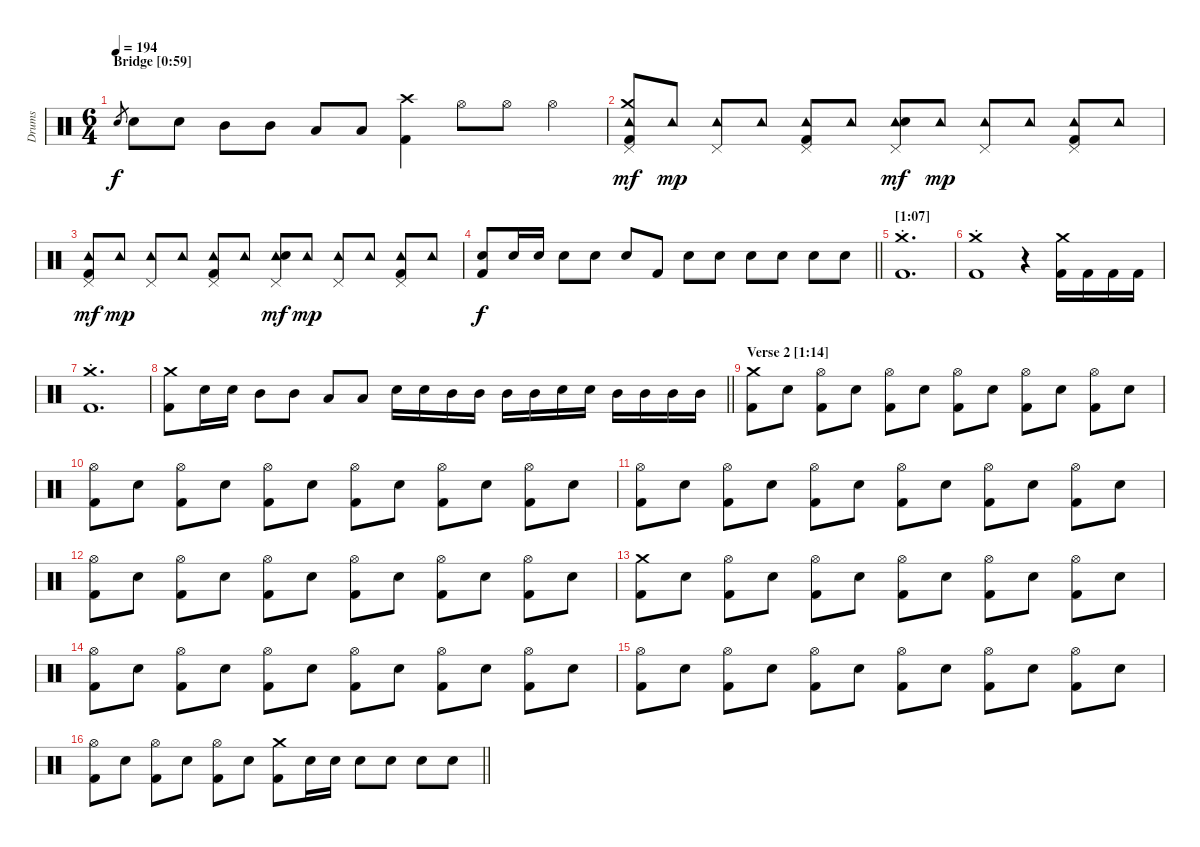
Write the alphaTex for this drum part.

\track ("Drums" "Drums") {instrument percussion}
\staff {score}
\articulation defaults
\ts (6 4)
\section ("" "Bridge [0:59]")
\tempo 194
\clef neutral
\ks c "Electric Snare (hit)".8{gr dy f} "Electric Snare (hit)".8 "Electric Snare (hit)".8 "Mid Tom (hit)".8 "Mid Tom (hit)".8 "Low Tom (hit)".8 "Low Tom (hit)".8
("Crash high (hit)" "Kick (hit) 2").4 "Hi-Hat (open)".8 "Hi-Hat (open)".8 "Hi-Hat (open)".4 |
("Crash medium (hit)" "Tambourine (hit)" "Pedal Hi-Hat (hit)" "Kick (hit) 2").8{dy mf} "Tambourine (hit)".8{dy mp} ("Tambourine (hit)" "Pedal Hi-Hat (hit)").8 "Tambourine (hit)".8 ("Tambourine (hit)" "Pedal Hi-Hat (hit)" "Kick (hit) 2").8 "Tambourine (hit)".8 ("Tambourine (hit)" "Pedal Hi-Hat (hit)" "Electric Snare (hit)").8{dy mf} "Tambourine (hit)".8{dy mp} ("Tambourine (hit)" "Pedal Hi-Hat (hit)").8 "Tambourine (hit)".8 ("Tambourine (hit)" "Pedal Hi-Hat (hit)" "Kick (hit) 2").8 "Tambourine (hit)".8 |
("Tambourine (hit)" "Pedal Hi-Hat (hit)" "Kick (hit) 2").8{dy mf} "Tambourine (hit)".8{dy mp} ("Tambourine (hit)" "Pedal Hi-Hat (hit)").8 "Tambourine (hit)".8 ("Tambourine (hit)" "Pedal Hi-Hat (hit)" "Kick (hit) 2").8 "Tambourine (hit)".8 ("Tambourine (hit)" "Pedal Hi-Hat (hit)" "Electric Snare (hit)").8{dy mf} "Tambourine (hit)".8{dy mp} ("Tambourine (hit)" "Pedal Hi-Hat (hit)").8 "Tambourine (hit)".8 ("Tambourine (hit)" "Pedal Hi-Hat (hit)" "Kick (hit) 2").8 "Tambourine (hit)".8 |
\barLineRight lightlight
("Electric Snare (hit)" "Kick (hit) 2").8{dy f} "Electric Snare (hit)".16 "Electric Snare (hit)".16 "Electric Snare (hit)".8 "Electric Snare (hit)".8 "Electric Snare (hit)".8 "Kick (hit) 2".8 "Electric Snare (hit)".8 "Electric Snare (hit)".8 "Electric Snare (hit)".8 "Electric Snare (hit)".8 "Electric Snare (hit)".8 "Electric Snare (hit)".8 |
\section ("" "[1:07]")
("Crash medium (hit)"{st} "Kick (hit) 2").1{d} |
("Crash medium (hit)"{st} "Kick (hit) 2").1 r.4 ("Crash medium (hit)" "Kick (hit) 2").16 "Kick (hit) 2".16 "Kick (hit) 2".16 "Kick (hit) 2".16 |
("Crash medium (hit)"{st} "Kick (hit) 2").1{d} |
\barLineRight lightlight
("Crash medium (hit)" "Kick (hit) 2").8 "Electric Snare (hit)".16 "Electric Snare (hit)".16 "Mid Tom (hit)".8 "Mid Tom (hit)".8 "Low Tom (hit)".8 "Low Tom (hit)".8 "Electric Snare (hit)".16 "Electric Snare (hit)".16 "Mid Tom (hit)".16 "Mid Tom (hit)".16 "Mid Tom (hit)".16 "Mid Tom (hit)".16 "Electric Snare (hit)".16 "Electric Snare (hit)".16 "Mid Tom (hit)".16 "Mid Tom (hit)".16 "Mid Tom (hit)".16 "Mid Tom (hit)".16 |
\section ("" "Verse 2 [1:14]")
("Crash medium (hit)" "Kick (hit) 2").8 "Electric Snare (hit)".8 ("Hi-Hat (open)" "Kick (hit) 2").8 "Electric Snare (hit)".8 ("Hi-Hat (open)" "Kick (hit) 2").8 "Electric Snare (hit)".8 ("Hi-Hat (open)" "Kick (hit) 2").8 "Electric Snare (hit)".8 ("Hi-Hat (open)" "Kick (hit) 2").8 "Electric Snare (hit)".8 ("Hi-Hat (open)" "Kick (hit) 2").8 "Electric Snare (hit)".8 |
("Hi-Hat (open)" "Kick (hit) 2").8 "Electric Snare (hit)".8 ("Hi-Hat (open)" "Kick (hit) 2").8 "Electric Snare (hit)".8 ("Hi-Hat (open)" "Kick (hit) 2").8 "Electric Snare (hit)".8 ("Hi-Hat (open)" "Kick (hit) 2").8 "Electric Snare (hit)".8 ("Hi-Hat (open)" "Kick (hit) 2").8 "Electric Snare (hit)".8 ("Hi-Hat (open)" "Kick (hit) 2").8 "Electric Snare (hit)".8 |
("Hi-Hat (open)" "Kick (hit) 2").8 "Electric Snare (hit)".8 ("Hi-Hat (open)" "Kick (hit) 2").8 "Electric Snare (hit)".8 ("Hi-Hat (open)" "Kick (hit) 2").8 "Electric Snare (hit)".8 ("Hi-Hat (open)" "Kick (hit) 2").8 "Electric Snare (hit)".8 ("Hi-Hat (open)" "Kick (hit) 2").8 "Electric Snare (hit)".8 ("Hi-Hat (open)" "Kick (hit) 2").8 "Electric Snare (hit)".8 |
("Hi-Hat (open)" "Kick (hit) 2").8 "Electric Snare (hit)".8 ("Hi-Hat (open)" "Kick (hit) 2").8 "Electric Snare (hit)".8 ("Hi-Hat (open)" "Kick (hit) 2").8 "Electric Snare (hit)".8 ("Hi-Hat (open)" "Kick (hit) 2").8 "Electric Snare (hit)".8 ("Hi-Hat (open)" "Kick (hit) 2").8 "Electric Snare (hit)".8 ("Hi-Hat (open)" "Kick (hit) 2").8 "Electric Snare (hit)".8 |
("Crash medium (hit)" "Kick (hit) 2").8 "Electric Snare (hit)".8 ("Hi-Hat (open)" "Kick (hit) 2").8 "Electric Snare (hit)".8 ("Hi-Hat (open)" "Kick (hit) 2").8 "Electric Snare (hit)".8 ("Hi-Hat (open)" "Kick (hit) 2").8 "Electric Snare (hit)".8 ("Hi-Hat (open)" "Kick (hit) 2").8 "Electric Snare (hit)".8 ("Hi-Hat (open)" "Kick (hit) 2").8 "Electric Snare (hit)".8 |
("Hi-Hat (open)" "Kick (hit) 2").8 "Electric Snare (hit)".8 ("Hi-Hat (open)" "Kick (hit) 2").8 "Electric Snare (hit)".8 ("Hi-Hat (open)" "Kick (hit) 2").8 "Electric Snare (hit)".8 ("Hi-Hat (open)" "Kick (hit) 2").8 "Electric Snare (hit)".8 ("Hi-Hat (open)" "Kick (hit) 2").8 "Electric Snare (hit)".8 ("Hi-Hat (open)" "Kick (hit) 2").8 "Electric Snare (hit)".8 |
("Hi-Hat (open)" "Kick (hit) 2").8 "Electric Snare (hit)".8 ("Hi-Hat (open)" "Kick (hit) 2").8 "Electric Snare (hit)".8 ("Hi-Hat (open)" "Kick (hit) 2").8 "Electric Snare (hit)".8 ("Hi-Hat (open)" "Kick (hit) 2").8 "Electric Snare (hit)".8 ("Hi-Hat (open)" "Kick (hit) 2").8 "Electric Snare (hit)".8 ("Hi-Hat (open)" "Kick (hit) 2").8 "Electric Snare (hit)".8 |
\barLineRight lightlight
("Hi-Hat (open)" "Kick (hit) 2").8 "Electric Snare (hit)".8 ("Hi-Hat (open)" "Kick (hit) 2").8 "Electric Snare (hit)".8 ("Hi-Hat (open)" "Kick (hit) 2").8 "Electric Snare (hit)".8 ("Crash medium (hit)" "Kick (hit) 2").8 "Electric Snare (hit)".16 "Electric Snare (hit)".16 "Electric Snare (hit)".8 "Electric Snare (hit)".8 "Electric Snare (hit)".8 "Electric Snare (hit)".8
